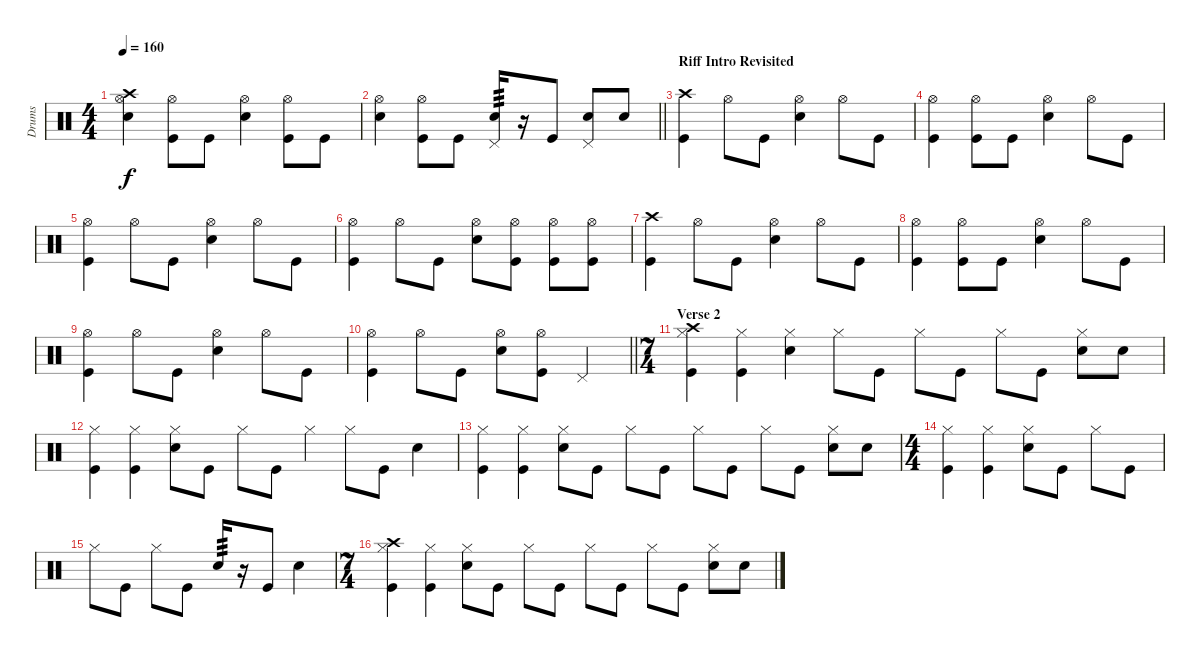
\track ("Drums" "Drums") {instrument percussion}
\staff {score}
\articulation defaults
\ts (4 4)
\tempo 160
\clef neutral
\ks c
("Hi-Hat (open)" "Crash high (hit)" "Snare (hit) 2").4{dy f} ("Hi-Hat (open)" "Kick (hit)").8 "Kick (hit)".8 ("Hi-Hat (open)" "Snare (hit) 2").4 ("Hi-Hat (open)" "Kick (hit)").8 "Kick (hit)".8 |
\barLineRight lightlight
("Hi-Hat (open)" "Snare (hit) 2").4 ("Hi-Hat (open)" "Kick (hit)").8 "Kick (hit)".8 ("Pedal Hi-Hat (hit)" "Snare (hit) 2").16{tp 3} r.16 "Kick (hit)".8 ("Pedal Hi-Hat (hit)" "Snare (hit) 2").8 "Snare (hit) 2".8 |
\section ("" "Riff Intro Revisited")
("Crash high (hit)" "Kick (hit)").4 "Hi-Hat (open)".8 "Kick (hit)".8 ("Hi-Hat (open)" "Snare (hit) 2").4 "Hi-Hat (open)".8 "Kick (hit)".8 |
("Hi-Hat (open)" "Kick (hit)").4 ("Hi-Hat (open)" "Kick (hit)").8 "Kick (hit)".8 ("Hi-Hat (open)" "Snare (hit) 2").4 "Hi-Hat (open)".8 "Kick (hit)".8 |
("Hi-Hat (open)" "Kick (hit)").4 "Hi-Hat (open)".8 "Kick (hit)".8 ("Hi-Hat (open)" "Snare (hit) 2").4 "Hi-Hat (open)".8 "Kick (hit)".8 |
("Hi-Hat (open)" "Kick (hit)").4 "Hi-Hat (open)".8 "Kick (hit)".8 ("Hi-Hat (open)" "Snare (hit) 2").8 ("Hi-Hat (open)" "Kick (hit)").8 ("Hi-Hat (open)" "Kick (hit)").8 ("Hi-Hat (open)" "Kick (hit)").8 |
("Crash high (hit)" "Kick (hit)").4 "Hi-Hat (open)".8 "Kick (hit)".8 ("Hi-Hat (open)" "Snare (hit) 2").4 "Hi-Hat (open)".8 "Kick (hit)".8 |
("Hi-Hat (open)" "Kick (hit)").4 ("Hi-Hat (open)" "Kick (hit)").8 "Kick (hit)".8 ("Hi-Hat (open)" "Snare (hit) 2").4 "Hi-Hat (open)".8 "Kick (hit)".8 |
("Hi-Hat (open)" "Kick (hit)").4 "Hi-Hat (open)".8 "Kick (hit)".8 ("Hi-Hat (open)" "Snare (hit) 2").4 "Hi-Hat (open)".8 "Kick (hit)".8 |
\barLineRight lightlight
("Hi-Hat (open)" "Kick (hit)").4 "Hi-Hat (open)".8 "Kick (hit)".8 ("Hi-Hat (open)" "Snare (hit) 2").8 ("Hi-Hat (open)" "Kick (hit)").8 "Pedal Hi-Hat (hit)".4 |
\ts (7 4)
\section ("" "Verse 2")
("Hi-Hat (closed)" "Crash high (hit)" "Kick (hit)").4 ("Hi-Hat (closed)" "Kick (hit)").4 ("Hi-Hat (closed)" "Snare (hit) 2").4 "Hi-Hat (closed)".8 "Kick (hit)".8 "Hi-Hat (closed)".8 "Kick (hit)".8 "Hi-Hat (closed)".8 "Kick (hit)".8 ("Hi-Hat (closed)" "Snare (hit) 2").8 "Snare (hit) 2".8 |
("Hi-Hat (closed)" "Kick (hit)").4 ("Hi-Hat (closed)" "Kick (hit)").4 ("Hi-Hat (closed)" "Snare (hit) 2").8 "Kick (hit)".8 "Hi-Hat (closed)".8 "Kick (hit)".8 "Hi-Hat (closed)".4 "Hi-Hat (closed)".8 "Kick (hit)".8 "Snare (hit) 2".4 |
("Hi-Hat (closed)" "Kick (hit)").4 ("Hi-Hat (closed)" "Kick (hit)").4 ("Hi-Hat (closed)" "Snare (hit) 2").8 "Kick (hit)".8 "Hi-Hat (closed)".8 "Kick (hit)".8 "Hi-Hat (closed)".8 "Kick (hit)".8 "Hi-Hat (closed)".8 "Kick (hit)".8 ("Hi-Hat (closed)" "Snare (hit) 2").8 "Snare (hit) 2".8 |
\ts (4 4)
("Hi-Hat (closed)" "Kick (hit)").4 ("Hi-Hat (closed)" "Kick (hit)").4 ("Hi-Hat (closed)" "Snare (hit) 2").8 "Kick (hit)".8 "Hi-Hat (closed)".8 "Kick (hit)".8 |
"Hi-Hat (closed)".8 "Kick (hit)".8 "Hi-Hat (closed)".8 "Kick (hit)".8 "Snare (hit) 2".16{tp 3} r.16 "Kick (hit)".8 "Snare (hit) 2".4 |
\ts (7 4)
("Hi-Hat (closed)" "Crash high (hit)" "Kick (hit)").4 ("Hi-Hat (closed)" "Kick (hit)").4 ("Hi-Hat (closed)" "Snare (hit) 2").8 "Kick (hit)".8 "Hi-Hat (closed)".8 "Kick (hit)".8 "Hi-Hat (closed)".8 "Kick (hit)".8 "Hi-Hat (closed)".8 "Kick (hit)".8 ("Hi-Hat (closed)" "Snare (hit) 2").8 "Snare (hit) 2".8
